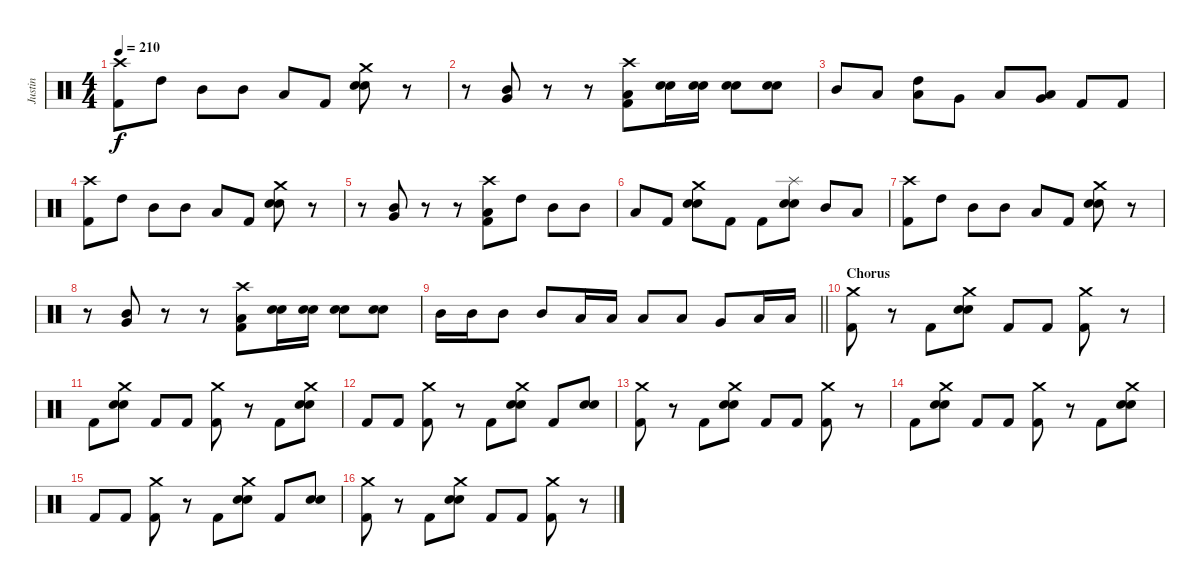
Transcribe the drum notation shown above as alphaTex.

\track ("Justin" "Justin") {instrument percussion}
\staff {score}
\articulation defaults
\ts (4 4)
\tempo 210
\clef neutral
\ks c
("Crash high (hit)" "Kick (hit) 2").8{dy f} "High Tom (hit)".8 "Mid Tom (hit)".8 "Mid Tom (hit)".8 "Low Tom (hit)".8 "Kick (hit) 2".8 ("Crash medium (hit)" "Electric Snare (hit)" "Snare (hit) 2").8 r.8 |
r.8 ("Mid Tom (hit)" "Very Low Tom (hit)").8 r.8 r.8 ("Crash high (hit)" "Low Floor Tom (hit)" "Kick (hit) 2").8 ("Electric Snare (hit)" "Snare (hit) 2").16 ("Electric Snare (hit)" "Snare (hit) 2").16 ("Electric Snare (hit)" "Snare (hit) 2").8 ("Electric Snare (hit)" "Snare (hit) 2").8 |
"Mid Tom (hit)".8 "Low Tom (hit)".8 ("High Tom (hit)" "Low Tom (hit)").8 "Very Low Tom (hit)".8 "Low Floor Tom (hit)".8 ("Low Tom (hit)" "Very Low Tom (hit)").8 "Kick (hit) 2".8 "Kick (hit) 2".8 |
("Crash high (hit)" "Kick (hit) 2").8 "High Tom (hit)".8 "Mid Tom (hit)".8 "Mid Tom (hit)".8 "Low Tom (hit)".8 "Kick (hit) 2".8 ("Crash medium (hit)" "Electric Snare (hit)" "Snare (hit) 2").8 r.8 |
r.8 ("Mid Tom (hit)" "Very Low Tom (hit)").8 r.8 r.8 ("Crash high (hit)" "Low Floor Tom (hit)" "Kick (hit) 2").8 "High Tom (hit)".8 "Mid Tom (hit)".8 "Mid Tom (hit)".8 |
"Low Tom (hit)".8 "Kick (hit) 2".8 ("Crash medium (hit)" "Electric Snare (hit)" "Snare (hit) 2").8 "Kick (hit) 2".8 "Kick (hit) 2".8 ("Splash (hit)" "Electric Snare (hit)" "Snare (hit) 2").8 "Mid Tom (hit)".8 "Low Tom (hit)".8 |
("Crash high (hit)" "Kick (hit) 2").8 "High Tom (hit)".8 "Mid Tom (hit)".8 "Mid Tom (hit)".8 "Low Tom (hit)".8 "Kick (hit) 2".8 ("Crash medium (hit)" "Electric Snare (hit)" "Snare (hit) 2").8 r.8 |
r.8 ("Mid Tom (hit)" "Very Low Tom (hit)").8 r.8 r.8 ("Crash high (hit)" "Low Floor Tom (hit)" "Kick (hit) 2").8 ("Electric Snare (hit)" "Snare (hit) 2").16 ("Electric Snare (hit)" "Snare (hit) 2").16 ("Electric Snare (hit)" "Snare (hit) 2").8 ("Electric Snare (hit)" "Snare (hit) 2").8 |
\barLineRight lightlight "Mid Tom (hit)".16 "Mid Tom (hit)".16 "Mid Tom (hit)".8 "Mid Tom (hit)".8 "Low Tom (hit)".16 "Low Tom (hit)".16 "Low Tom (hit)".8 "Low Tom (hit)".8 "Very Low Tom (hit)".8 "Low Floor Tom (hit)".16 "Low Floor Tom (hit)".16
|
\section ("" "Chorus")
("Crash medium (hit)" "Kick (hit) 2").8 r.8 "Kick (hit) 2".8 ("Crash medium (hit)" "Electric Snare (hit)" "Snare (hit) 2").8 "Kick (hit) 2".8 "Kick (hit) 2".8 ("Crash medium (hit)" "Kick (hit) 2").8 r.8 |
"Kick (hit) 2".8 ("Crash medium (hit)" "Electric Snare (hit)" "Snare (hit) 2").8 "Kick (hit) 2".8 "Kick (hit) 2".8 ("Crash medium (hit)" "Kick (hit) 2").8 r.8 "Kick (hit) 2".8 ("Crash medium (hit)" "Electric Snare (hit)" "Snare (hit) 2").8 |
"Kick (hit) 2".8 "Kick (hit) 2".8 ("Crash medium (hit)" "Kick (hit) 2").8 r.8 "Kick (hit) 2".8 ("Crash medium (hit)" "Electric Snare (hit)" "Snare (hit) 2").8 "Kick (hit) 2".8 ("Electric Snare (hit)" "Snare (hit) 2").8 |
("Crash medium (hit)" "Kick (hit) 2").8 r.8 "Kick (hit) 2".8 ("Crash medium (hit)" "Electric Snare (hit)" "Snare (hit) 2").8 "Kick (hit) 2".8 "Kick (hit) 2".8 ("Crash medium (hit)" "Kick (hit) 2").8 r.8 |
"Kick (hit) 2".8 ("Crash medium (hit)" "Electric Snare (hit)" "Snare (hit) 2").8 "Kick (hit) 2".8 "Kick (hit) 2".8 ("Crash medium (hit)" "Kick (hit) 2").8 r.8 "Kick (hit) 2".8 ("Crash medium (hit)" "Electric Snare (hit)" "Snare (hit) 2").8 |
"Kick (hit) 2".8 "Kick (hit) 2".8 ("Crash medium (hit)" "Kick (hit) 2").8 r.8 "Kick (hit) 2".8 ("Crash medium (hit)" "Electric Snare (hit)" "Snare (hit) 2").8 "Kick (hit) 2".8 ("Electric Snare (hit)" "Snare (hit) 2").8 |
("Crash medium (hit)" "Kick (hit) 2").8 r.8 "Kick (hit) 2".8 ("Crash medium (hit)" "Electric Snare (hit)" "Snare (hit) 2").8 "Kick (hit) 2".8 "Kick (hit) 2".8 ("Crash medium (hit)" "Kick (hit) 2").8 r.8
